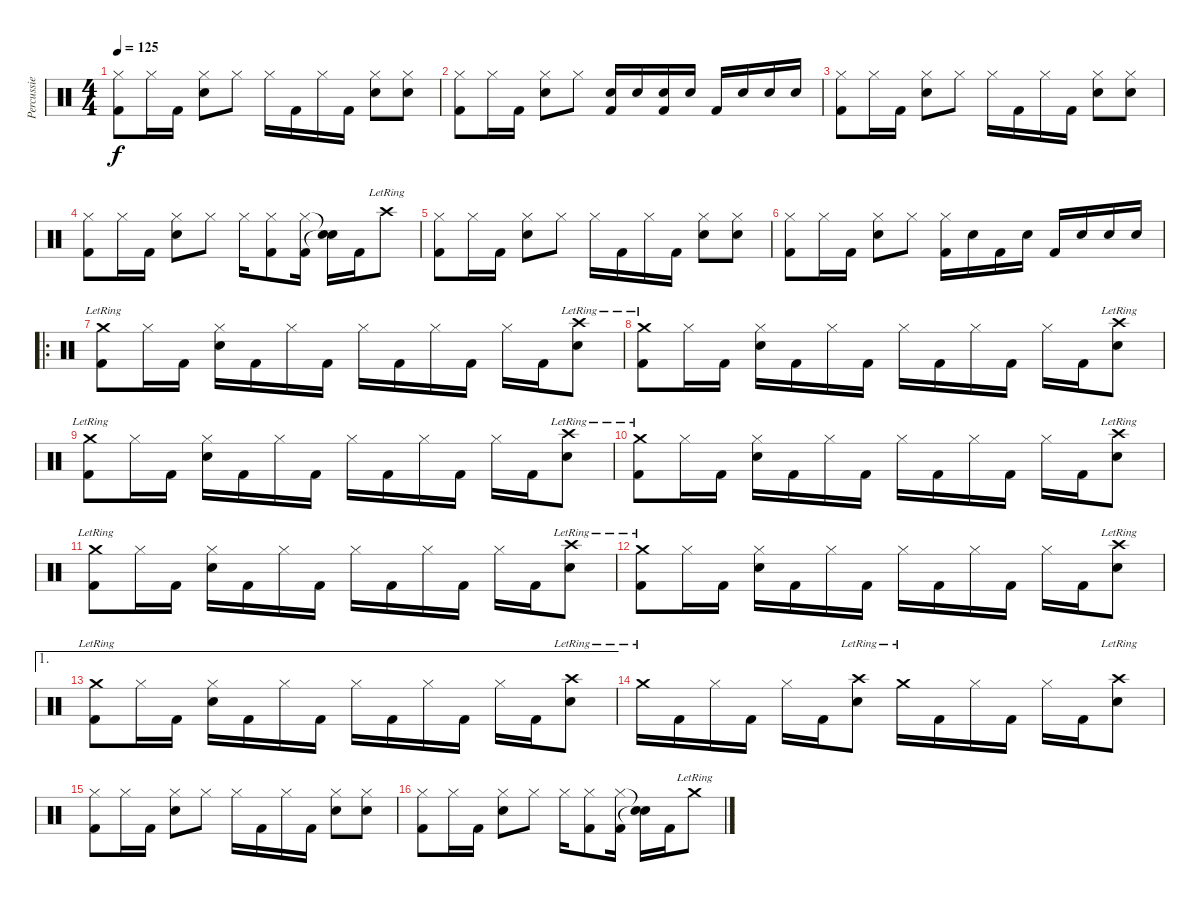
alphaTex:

\track ("Percussie" "Percussie") {instrument percussion}
\staff {score}
\articulation defaults
\ts (4 4)
\tempo 125
\clef neutral
\ks c
("Hi-Hat (closed)" "Kick (hit) 2").8{dy f} "Hi-Hat (closed)".16 "Kick (hit) 2".16 ("Hi-Hat (closed)" "Snare (hit) 2").8 "Hi-Hat (closed)".8 "Hi-Hat (closed)".16 "Kick (hit) 2".16 "Hi-Hat (closed)".16 "Kick (hit) 2".16 ("Hi-Hat (closed)" "Snare (hit) 2").8 ("Hi-Hat (closed)" "Snare (hit) 2").8 |
("Hi-Hat (closed)" "Kick (hit) 2").8 "Hi-Hat (closed)".16 "Kick (hit) 2".16 ("Hi-Hat (closed)" "Snare (hit) 2").8 "Hi-Hat (closed)".8 ("Snare (hit) 2" "Kick (hit) 2").16 "Snare (hit) 2".16 ("Snare (hit) 2" "Kick (hit) 2").16 "Snare (hit) 2".16 "Kick (hit) 2".16 "Snare (hit) 2".16 "Snare (hit) 2".16 "Snare (hit) 2".16 |
("Hi-Hat (closed)" "Kick (hit) 2").8 "Hi-Hat (closed)".16 "Kick (hit) 2".16 ("Hi-Hat (closed)" "Snare (hit) 2").8 "Hi-Hat (closed)".8 "Hi-Hat (closed)".16 "Kick (hit) 2".16 "Hi-Hat (closed)".16 "Kick (hit) 2".16 ("Hi-Hat (closed)" "Snare (hit) 2").8 ("Hi-Hat (closed)" "Snare (hit) 2").8 |
("Hi-Hat (closed)" "Kick (hit) 2").8 "Hi-Hat (closed)".16 "Kick (hit) 2".16 ("Hi-Hat (closed)" "Snare (hit) 2").8 "Hi-Hat (closed)".8 "Hi-Hat (closed)".16 ("Hi-Hat (closed)" "Kick (hit) 2").8 ("Hi-Hat (closed)" "Kick (hit) 2").16 ("Snare (hit)"{t} "Snare (hit)"{t}).16 "Kick (hit) 2".16 "Crash high (hit)"{lr}.8 |
("Hi-Hat (closed)" "Kick (hit) 2").8 "Hi-Hat (closed)".16 "Kick (hit) 2".16 ("Hi-Hat (closed)" "Snare (hit) 2").8 "Hi-Hat (closed)".8 "Hi-Hat (closed)".16 "Kick (hit) 2".16 "Hi-Hat (closed)".16 "Kick (hit) 2".16 ("Hi-Hat (closed)" "Snare (hit) 2").8 ("Hi-Hat (closed)" "Snare (hit) 2").8 |
("Hi-Hat (closed)" "Kick (hit) 2").8 "Hi-Hat (closed)".16 "Kick (hit) 2".16 ("Hi-Hat (closed)" "Snare (hit) 2").8 "Hi-Hat (closed)".8 ("Hi-Hat (closed)" "Kick (hit) 2").16 "Snare (hit) 2".16 "Kick (hit) 2".16 "Snare (hit) 2".16 "Kick (hit) 2".16 "Snare (hit) 2".16 "Snare (hit) 2".16 "Snare (hit) 2".16 |
\ro
("Crash medium (hit)"{lr} "Kick (hit) 2").8 "Hi-Hat (closed)".16 "Kick (hit) 2".16 ("Hi-Hat (closed)" "Snare (hit) 2").16 "Kick (hit) 2".16 "Hi-Hat (closed)".16 "Kick (hit) 2".16 "Hi-Hat (closed)".16 "Kick (hit) 2".16 "Hi-Hat (closed)".16 "Kick (hit) 2".16 "Hi-Hat (closed)".16 "Kick (hit) 2".16 ("Crash high (hit)"{lr} "Snare (hit) 2").8 |
("Crash medium (hit)"{lr} "Kick (hit) 2").8 "Hi-Hat (closed)".16 "Kick (hit) 2".16 ("Hi-Hat (closed)" "Snare (hit) 2").16 "Kick (hit) 2".16 "Hi-Hat (closed)".16 "Kick (hit) 2".16 "Hi-Hat (closed)".16 "Kick (hit) 2".16 "Hi-Hat (closed)".16 "Kick (hit) 2".16 "Hi-Hat (closed)".16 "Kick (hit) 2".16 ("Crash high (hit)"{lr} "Snare (hit) 2").8 |
("Crash medium (hit)"{lr} "Kick (hit) 2").8 "Hi-Hat (closed)".16 "Kick (hit) 2".16 ("Hi-Hat (closed)" "Snare (hit) 2").16 "Kick (hit) 2".16 "Hi-Hat (closed)".16 "Kick (hit) 2".16 "Hi-Hat (closed)".16 "Kick (hit) 2".16 "Hi-Hat (closed)".16 "Kick (hit) 2".16 "Hi-Hat (closed)".16 "Kick (hit) 2".16 ("Crash high (hit)"{lr} "Snare (hit) 2").8 |
("Crash medium (hit)"{lr} "Kick (hit) 2").8 "Hi-Hat (closed)".16 "Kick (hit) 2".16 ("Hi-Hat (closed)" "Snare (hit) 2").16 "Kick (hit) 2".16 "Hi-Hat (closed)".16 "Kick (hit) 2".16 "Hi-Hat (closed)".16 "Kick (hit) 2".16 "Hi-Hat (closed)".16 "Kick (hit) 2".16 "Hi-Hat (closed)".16 "Kick (hit) 2".16 ("Crash high (hit)"{lr} "Snare (hit) 2").8 |
("Crash medium (hit)"{lr} "Kick (hit) 2").8 "Hi-Hat (closed)".16 "Kick (hit) 2".16 ("Hi-Hat (closed)" "Snare (hit) 2").16 "Kick (hit) 2".16 "Hi-Hat (closed)".16 "Kick (hit) 2".16 "Hi-Hat (closed)".16 "Kick (hit) 2".16 "Hi-Hat (closed)".16 "Kick (hit) 2".16 "Hi-Hat (closed)".16 "Kick (hit) 2".16 ("Crash high (hit)"{lr} "Snare (hit) 2").8 |
("Crash medium (hit)"{lr} "Kick (hit) 2").8 "Hi-Hat (closed)".16 "Kick (hit) 2".16 ("Hi-Hat (closed)" "Snare (hit) 2").16 "Kick (hit) 2".16 "Hi-Hat (closed)".16 "Kick (hit) 2".16 "Hi-Hat (closed)".16 "Kick (hit) 2".16 "Hi-Hat (closed)".16 "Kick (hit) 2".16 "Hi-Hat (closed)".16 "Kick (hit) 2".16 ("Crash high (hit)"{lr} "Snare (hit) 2").8 |
\ae 1
("Crash medium (hit)"{lr} "Kick (hit) 2").8 "Hi-Hat (closed)".16 "Kick (hit) 2".16 ("Hi-Hat (closed)" "Snare (hit) 2").16 "Kick (hit) 2".16 "Hi-Hat (closed)".16 "Kick (hit) 2".16 "Hi-Hat (closed)".16 "Kick (hit) 2".16 "Hi-Hat (closed)".16 "Kick (hit) 2".16 "Hi-Hat (closed)".16 "Kick (hit) 2".16 ("Crash high (hit)"{lr} "Snare (hit) 2").8 |
"Crash medium (hit)"{lr}.16 "Kick (hit) 2".16 "Hi-Hat (closed)".16 "Kick (hit) 2".16 "Hi-Hat (closed)".16 "Kick (hit) 2".16 ("Crash high (hit)"{lr} "Snare (hit) 2").8 "Crash medium (hit)"{lr}.16 "Kick (hit) 2".16 "Hi-Hat (closed)".16 "Kick (hit) 2".16 "Hi-Hat (closed)".16 "Kick (hit) 2".16 ("Crash high (hit)"{lr} "Snare (hit) 2").8 |
("Hi-Hat (closed)" "Kick (hit) 2").8 "Hi-Hat (closed)".16 "Kick (hit) 2".16 ("Hi-Hat (closed)" "Snare (hit) 2").8 "Hi-Hat (closed)".8 "Hi-Hat (closed)".16 "Kick (hit) 2".16 "Hi-Hat (closed)".16 "Kick (hit) 2".16 ("Hi-Hat (closed)" "Snare (hit) 2").8 ("Hi-Hat (closed)" "Snare (hit) 2").8 |
("Hi-Hat (closed)" "Kick (hit) 2").8 "Hi-Hat (closed)".16 "Kick (hit) 2".16 ("Hi-Hat (closed)" "Snare (hit) 2").8 "Hi-Hat (closed)".8 "Hi-Hat (closed)".16 ("Hi-Hat (closed)" "Kick (hit) 2").8 ("Hi-Hat (closed)" "Kick (hit) 2").16 ("Snare (hit)"{t} "Snare (hit)"{t}).16 "Kick (hit) 2".16 "Crash medium (hit)"{lr}.8
